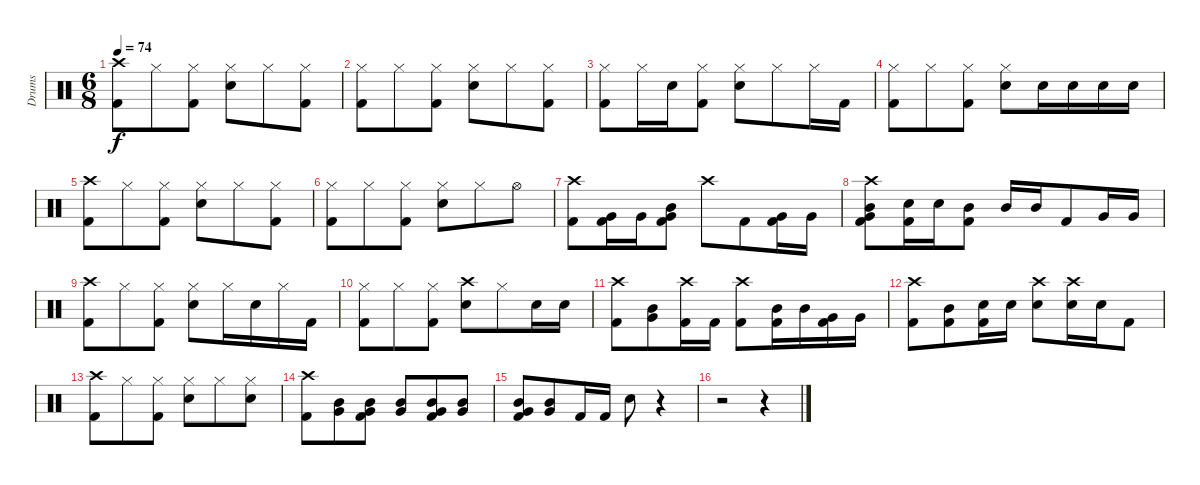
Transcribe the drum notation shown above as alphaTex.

\track ("Drums" "Drums") {instrument percussion}
\staff {score}
\articulation defaults
\ts (6 8)
\tempo 74
\clef neutral
\ks c
("Crash high (hit)" "Kick (hit) 2").8{dy f} "Hi-Hat (closed)".8 ("Hi-Hat (closed)" "Kick (hit) 2").8 ("Hi-Hat (closed)" "Electric Snare (hit)").8 "Hi-Hat (closed)".8 ("Hi-Hat (closed)" "Kick (hit) 2").8 |
("Hi-Hat (closed)" "Kick (hit) 2").8 "Hi-Hat (closed)".8 ("Hi-Hat (closed)" "Kick (hit) 2").8 ("Hi-Hat (closed)" "Electric Snare (hit)").8 "Hi-Hat (closed)".8 ("Hi-Hat (closed)" "Kick (hit) 2").8 |
("Hi-Hat (closed)" "Kick (hit) 2").8 "Hi-Hat (closed)".16 "Electric Snare (hit)".16 ("Hi-Hat (closed)" "Kick (hit) 2").8 ("Hi-Hat (closed)" "Electric Snare (hit)").8 "Hi-Hat (closed)".8 "Hi-Hat (closed)".16 "Kick (hit) 2".16 |
("Hi-Hat (closed)" "Kick (hit) 2").8 "Hi-Hat (closed)".8 ("Hi-Hat (closed)" "Kick (hit) 2").8 ("Hi-Hat (closed)" "Electric Snare (hit)").8 "Electric Snare (hit)".16 "Electric Snare (hit)".16 "Electric Snare (hit)".16 "Electric Snare (hit)".16 |
("Crash high (hit)" "Kick (hit) 2").8 "Hi-Hat (closed)".8 ("Hi-Hat (closed)" "Kick (hit) 2").8 ("Hi-Hat (closed)" "Electric Snare (hit)").8 "Hi-Hat (closed)".8 ("Hi-Hat (closed)" "Kick (hit) 2").8 |
("Hi-Hat (closed)" "Kick (hit) 2").8 "Hi-Hat (closed)".8 ("Hi-Hat (closed)" "Kick (hit) 2").8 ("Hi-Hat (closed)" "Electric Snare (hit)").8 "Hi-Hat (closed)".8 "Hi-Hat (open)".8 |
("Crash high (hit)" "Kick (hit) 2").8 ("Very Low Tom (hit)" "Kick (hit) 2").16 "Very Low Tom (hit)".16 ("Mid Tom (hit)" "Very Low Tom (hit)" "Kick (hit) 2").8 "Crash high (hit)".8 "Kick (hit) 2".8 ("Very Low Tom (hit)" "Kick (hit) 2").16 "Very Low Tom (hit)".16 |
("Crash high (hit)" "Mid Tom (hit)" "Very Low Tom (hit)" "Kick (hit) 2").8 ("Electric Snare (hit)" "Kick (hit) 2").16 "Electric Snare (hit)".16 ("Mid Tom (hit)" "Kick (hit) 2").8 "Mid Tom (hit)".16 "Mid Tom (hit)".16 "Kick (hit) 2".8 "Very Low Tom (hit)".16 "Very Low Tom (hit)".16 |
("Crash high (hit)" "Kick (hit) 2").8 "Hi-Hat (closed)".8 ("Hi-Hat (closed)" "Kick (hit) 2").8 ("Hi-Hat (closed)" "Electric Snare (hit)").8 "Hi-Hat (closed)".16 "Electric Snare (hit)".16 "Hi-Hat (closed)".16 "Kick (hit) 2".16 |
("Hi-Hat (closed)" "Kick (hit) 2").8 "Hi-Hat (closed)".8 ("Hi-Hat (closed)" "Kick (hit) 2").8 ("Crash high (hit)" "Electric Snare (hit)").8 "Hi-Hat (closed)".8 "Electric Snare (hit)".16 "Electric Snare (hit)".16 |
("Crash high (hit)" "Kick (hit) 2").8 ("Mid Tom (hit)" "Very Low Tom (hit)").8 ("Crash high (hit)" "Kick (hit) 2").16 "Kick (hit) 2".16 ("Crash high (hit)" "Kick (hit) 2").8 ("Mid Tom (hit)" "Kick (hit) 2").16 "Mid Tom (hit)".16 ("Very Low Tom (hit)" "Kick (hit) 2").16 "Very Low Tom (hit)".16 |
("Crash high (hit)" "Kick (hit) 2").8 ("Mid Tom (hit)" "Kick (hit) 2").8 ("Electric Snare (hit)" "Kick (hit) 2").16 "Electric Snare (hit)".16 ("Crash high (hit)" "Electric Snare (hit)").8 ("Crash high (hit)" "Electric Snare (hit)").16 "Electric Snare (hit)".16 "Kick (hit) 2".8 |
("Crash high (hit)" "Kick (hit) 2").8 "Hi-Hat (closed)".8 ("Hi-Hat (closed)" "Kick (hit) 2").8 ("Hi-Hat (closed)" "Electric Snare (hit)").8 "Hi-Hat (closed)".8 ("Hi-Hat (closed)" "Electric Snare (hit)").8 |
("Crash high (hit)" "Kick (hit) 2").8 ("Mid Tom (hit)" "Very Low Tom (hit)").8 ("Mid Tom (hit)" "Very Low Tom (hit)" "Kick (hit) 2").8 ("Mid Tom (hit)" "Very Low Tom (hit)").8 ("Mid Tom (hit)" "Very Low Tom (hit)" "Kick (hit) 2").8 ("Mid Tom (hit)" "Very Low Tom (hit)").8 |
("Mid Tom (hit)" "Very Low Tom (hit)" "Kick (hit) 2").8 ("Mid Tom (hit)" "Very Low Tom (hit)").8 "Kick (hit) 2".16 "Kick (hit) 2".16 "Electric Snare (hit)".8 r.4 |
r.2 r.4
